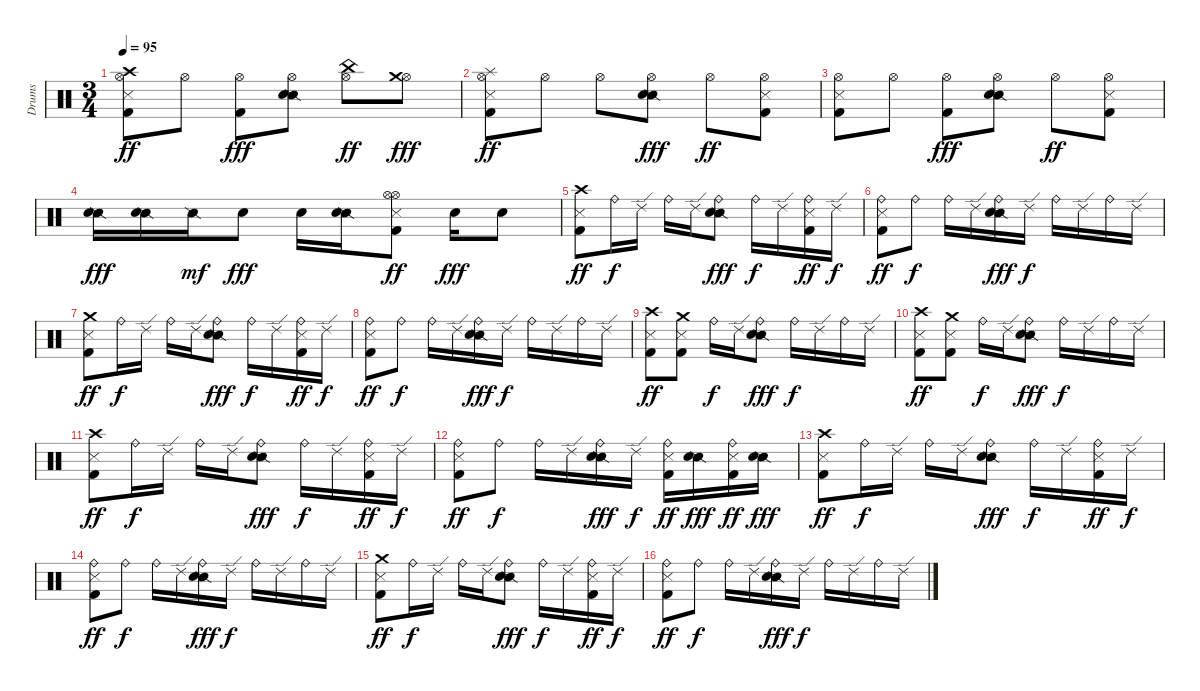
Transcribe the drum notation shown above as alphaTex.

\track ("Drums" "Drums") {instrument percussion}
\staff {score}
\articulation defaults
\ts (3 4)
\tempo 95
\clef neutral
\ks c
("Hi-Hat (open)" "Crash high (hit)" "Metronome (hit)" "Kick (hit) 2").8{dy ff} "Hi-Hat (open)".8 ("Hi-Hat (open)" "Kick (hit) 2").8{dy fff} ("Hi-Hat (open)" "Snare (side stick) 2" "Electric Snare (hit)").8 ("Hi-Hat (open)" "China (hit)").8{dy ff} ("Hi-Hat (open)" "Crash medium (hit)").8{dy fff} |
("Hi-Hat (open)" "Splash (hit)" "Metronome (hit)" "Kick (hit) 2").8{dy ff} "Hi-Hat (open)".8 "Hi-Hat (open)".8 ("Hi-Hat (open)" "Snare (side stick) 2" "Electric Snare (hit)").8{dy fff} "Hi-Hat (open)".8{dy ff} ("Hi-Hat (open)" "Metronome (hit)" "Kick (hit) 2").8 |
("Hi-Hat (open)" "Metronome (hit)" "Kick (hit) 2").8 "Hi-Hat (open)".8 ("Hi-Hat (open)" "Kick (hit) 2").8{dy fff} ("Hi-Hat (open)" "Snare (side stick) 2" "Electric Snare (hit)").8 "Hi-Hat (open)".8{dy ff} ("Hi-Hat (open)" "Metronome (hit)" "Kick (hit) 2").8 |
("Snare (side stick) 2" "Electric Snare (hit)").16{dy fff} ("Snare (side stick) 2" "Electric Snare (hit)").16 "Snare (side stick) 2".16{dy mf} "Electric Snare (hit)".8{dy fff} "Electric Snare (hit)".16 ("Snare (side stick) 2" "Electric Snare (hit)").16 ("Hi-Hat (open)" "Hi-Hat (open)" "Metronome (hit)" "Kick (hit) 2").8{dy ff} "Electric Snare (hit)".16{dy fff} "Electric Snare (hit)".8 |
("Crash high (hit)" "Metronome (hit)" "Kick (hit) 2").8{dy ff} "Ride (bell)".16{dy f} "Ride (edge) 2".16 "Ride (bell)".16 "Ride (edge) 2".16 ("Ride (bell)" "Snare (side stick) 2" "Electric Snare (hit)").8{dy fff} "Ride (bell)".16{dy f} "Ride (edge) 2".16 ("Ride (bell)" "Metronome (hit)" "Kick (hit) 2").16{dy ff} "Ride (edge) 2".16{dy f} |
("Ride (bell)" "Metronome (hit)" "Kick (hit) 2").8{dy ff} "Ride (bell)".8{dy f} "Ride (bell)".16 "Ride (edge) 2".16 ("Ride (bell)" "Snare (side stick) 2" "Electric Snare (hit)").16{dy fff} "Ride (edge) 2".16{dy f} "Ride (bell)".16 "Ride (edge) 2".16 "Ride (bell)".16 "Ride (edge) 2".16 |
("Crash medium (hit)" "Metronome (hit)" "Kick (hit) 2").8{dy ff} "Ride (bell)".16{dy f} "Ride (edge) 2".16 "Ride (bell)".16 "Ride (edge) 2".16 ("Ride (bell)" "Snare (side stick) 2" "Electric Snare (hit)").8{dy fff} "Ride (bell)".16{dy f} "Ride (edge) 2".16 ("Ride (bell)" "Metronome (hit)" "Kick (hit) 2").16{dy ff} "Ride (edge) 2".16{dy f} |
("Ride (bell)" "Metronome (hit)" "Kick (hit) 2").8{dy ff} "Ride (bell)".8{dy f} "Ride (bell)".16 "Ride (edge) 2".16 ("Ride (bell)" "Snare (side stick) 2" "Electric Snare (hit)").16{dy fff} "Ride (edge) 2".16{dy f} "Ride (bell)".16 "Ride (edge) 2".16 "Ride (bell)".16 "Ride (edge) 2".16 |
("Crash high (hit)" "Metronome (hit)" "Kick (hit) 2").8{dy ff} ("Crash medium (hit)" "Metronome (hit)" "Kick (hit) 2").8 "Ride (bell)".16{dy f} "Ride (edge) 2".16 ("Ride (bell)" "Snare (side stick) 2" "Electric Snare (hit)").8{dy fff} "Ride (bell)".16{dy f} "Ride (edge) 2".16 "Ride (bell)".16 "Ride (edge) 2".16 |
("Crash high (hit)" "Metronome (hit)" "Kick (hit) 2").8{dy ff} ("Crash medium (hit)" "Metronome (hit)" "Kick (hit) 2").8 "Ride (bell)".16{dy f} "Ride (edge) 2".16 ("Ride (bell)" "Snare (side stick) 2" "Electric Snare (hit)").8{dy fff} "Ride (bell)".16{dy f} "Ride (edge) 2".16 "Ride (bell)".16 "Ride (edge) 2".16 |
("Crash high (hit)" "Metronome (hit)" "Kick (hit) 2").8{dy ff} "Ride (bell)".16{dy f} "Ride (edge) 2".16 "Ride (bell)".16 "Ride (edge) 2".16 ("Ride (bell)" "Snare (side stick) 2" "Electric Snare (hit)").8{dy fff} "Ride (bell)".16{dy f} "Ride (edge) 2".16 ("Ride (bell)" "Metronome (hit)" "Kick (hit) 2").16{dy ff} "Ride (edge) 2".16{dy f} |
("Ride (bell)" "Metronome (hit)" "Kick (hit) 2").8{dy ff} "Ride (bell)".8{dy f} "Ride (bell)".16 "Ride (edge) 2".16 ("Ride (bell)" "Snare (side stick) 2" "Electric Snare (hit)").16{dy fff} "Ride (edge) 2".16{dy f} ("Ride (bell)" "Metronome (hit)" "Kick (hit) 2").16{dy ff} ("Snare (side stick) 2" "Electric Snare (hit)").16{dy fff} ("Ride (bell)" "Metronome (hit)" "Kick (hit) 2").16{dy ff} ("Snare (side stick) 2" "Electric Snare (hit)").16{dy fff} |
("Crash high (hit)" "Metronome (hit)" "Kick (hit) 2").8{dy ff} "Ride (bell)".16{dy f} "Ride (edge) 2".16 "Ride (bell)".16 "Ride (edge) 2".16 ("Ride (bell)" "Snare (side stick) 2" "Electric Snare (hit)").8{dy fff} "Ride (bell)".16{dy f} "Ride (edge) 2".16 ("Ride (bell)" "Metronome (hit)" "Kick (hit) 2").16{dy ff} "Ride (edge) 2".16{dy f} |
("Ride (bell)" "Metronome (hit)" "Kick (hit) 2").8{dy ff} "Ride (bell)".8{dy f} "Ride (bell)".16 "Ride (edge) 2".16 ("Ride (bell)" "Snare (side stick) 2" "Electric Snare (hit)").16{dy fff} "Ride (edge) 2".16{dy f} "Ride (bell)".16 "Ride (edge) 2".16 "Ride (bell)".16 "Ride (edge) 2".16 |
("Crash medium (hit)" "Metronome (hit)" "Kick (hit) 2").8{dy ff} "Ride (bell)".16{dy f} "Ride (edge) 2".16 "Ride (bell)".16 "Ride (edge) 2".16 ("Ride (bell)" "Snare (side stick) 2" "Electric Snare (hit)").8{dy fff} "Ride (bell)".16{dy f} "Ride (edge) 2".16 ("Ride (bell)" "Metronome (hit)" "Kick (hit) 2").16{dy ff} "Ride (edge) 2".16{dy f} |
("Ride (bell)" "Metronome (hit)" "Kick (hit) 2").8{dy ff} "Ride (bell)".8{dy f} "Ride (bell)".16 "Ride (edge) 2".16 ("Ride (bell)" "Snare (side stick) 2" "Electric Snare (hit)").16{dy fff} "Ride (edge) 2".16{dy f} "Ride (bell)".16 "Ride (edge) 2".16 "Ride (bell)".16 "Ride (edge) 2".16
